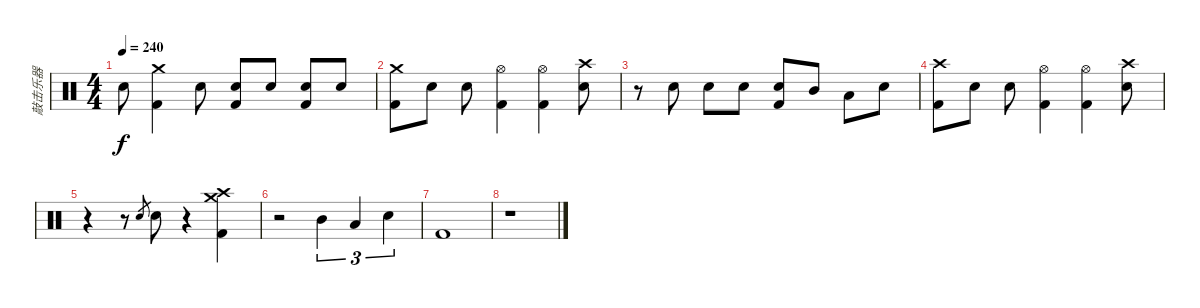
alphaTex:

\track ("敲击乐器" "敲击乐器") {instrument percussion}
\staff {score}
\articulation defaults
\ts (4 4)
\tempo 240
\clef neutral
\ks c "Electric Snare (hit)".8{dy f}
("Crash medium (hit)" "Kick (hit) 2").4 "Electric Snare (hit)".8 ("Electric Snare (hit)" "Kick (hit) 2").8 "Electric Snare (hit)".8 ("Electric Snare (hit)" "Kick (hit) 2").8 "Electric Snare (hit)".8 |
("Crash medium (hit)" "Kick (hit) 2").8 "Electric Snare (hit)".8 "Electric Snare (hit)".8 ("Hi-Hat (open)" "Kick (hit) 2").4 ("Hi-Hat (open)" "Kick (hit) 2").4 ("Crash high (hit)" "Electric Snare (hit)").8 |
r.8 "Electric Snare (hit)".8 "Electric Snare (hit)".8 "Electric Snare (hit)".8 ("Electric Snare (hit)" "Kick (hit) 2").8 "Mid Tom (hit)".8 "Low Tom (hit)".8 "Snare (hit) 2".8 |
("Crash high (hit)" "Kick (hit) 2").8 "Electric Snare (hit)".8 "Electric Snare (hit)".8 ("Hi-Hat (open)" "Kick (hit) 2").4 ("Hi-Hat (open)" "Kick (hit) 2").4 ("Crash high (hit)" "Electric Snare (hit)").8 |
r.4 r.8 "Electric Snare (hit)".8{gr} "Electric Snare (hit)".8 r.4 ("Crash high (hit)" "Crash medium (hit)" "Kick (hit) 2").4 |
r.2 "Mid Tom (hit)".4{tu (3 2)} "Low Tom (hit)".4{tu (3 2)} "Snare (hit) 2".4{tu (3 2)} |
"Kick (hit) 2".1 |
r.1
